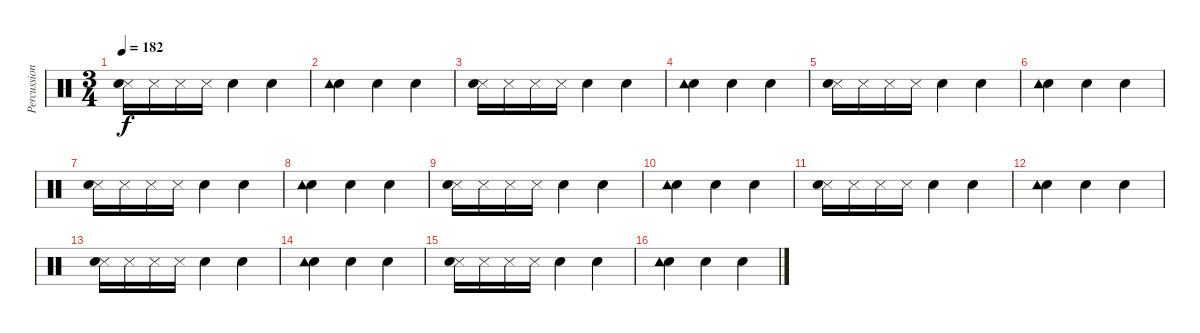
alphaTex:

\track ("Percussion" "Percussion") {instrument percussion}
\staff {score}
\articulation defaults
\ts (3 4)
\tempo 182
\clef neutral
\ks c
("Metronome (hit)" "Metronome (bell)").16{dy f} "Metronome (hit)".16 "Metronome (hit)".16 "Metronome (hit)".16 "Metronome (bell)".4 "Metronome (bell)".4 |
("Metronome (bell)" "Tambourine (hit)").4 "Metronome (bell)".4 "Metronome (bell)".4 |
("Metronome (hit)" "Metronome (bell)").16 "Metronome (hit)".16 "Metronome (hit)".16 "Metronome (hit)".16 "Metronome (bell)".4 "Metronome (bell)".4 |
("Metronome (bell)" "Tambourine (hit)").4 "Metronome (bell)".4 "Metronome (bell)".4 |
("Metronome (hit)" "Metronome (bell)").16 "Metronome (hit)".16 "Metronome (hit)".16 "Metronome (hit)".16 "Metronome (bell)".4 "Metronome (bell)".4 |
("Metronome (bell)" "Tambourine (hit)").4 "Metronome (bell)".4 "Metronome (bell)".4 |
("Metronome (hit)" "Metronome (bell)").16 "Metronome (hit)".16 "Metronome (hit)".16 "Metronome (hit)".16 "Metronome (bell)".4 "Metronome (bell)".4 |
("Metronome (bell)" "Tambourine (hit)").4 "Metronome (bell)".4 "Metronome (bell)".4 |
("Metronome (hit)" "Metronome (bell)").16 "Metronome (hit)".16 "Metronome (hit)".16 "Metronome (hit)".16 "Metronome (bell)".4 "Metronome (bell)".4 |
("Metronome (bell)" "Tambourine (hit)").4 "Metronome (bell)".4 "Metronome (bell)".4 |
("Metronome (hit)" "Metronome (bell)").16 "Metronome (hit)".16 "Metronome (hit)".16 "Metronome (hit)".16 "Metronome (bell)".4 "Metronome (bell)".4 |
("Metronome (bell)" "Tambourine (hit)").4 "Metronome (bell)".4 "Metronome (bell)".4 |
("Metronome (hit)" "Metronome (bell)").16 "Metronome (hit)".16 "Metronome (hit)".16 "Metronome (hit)".16 "Metronome (bell)".4 "Metronome (bell)".4 |
("Metronome (bell)" "Tambourine (hit)").4 "Metronome (bell)".4 "Metronome (bell)".4 |
("Metronome (hit)" "Metronome (bell)").16 "Metronome (hit)".16 "Metronome (hit)".16 "Metronome (hit)".16 "Metronome (bell)".4 "Metronome (bell)".4 |
("Metronome (bell)" "Tambourine (hit)").4 "Metronome (bell)".4 "Metronome (bell)".4
